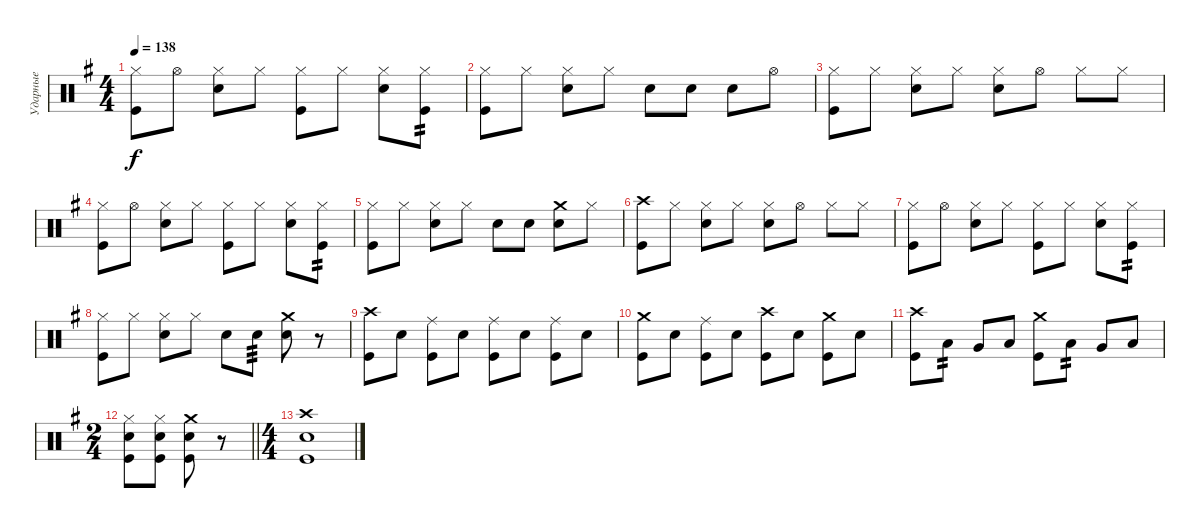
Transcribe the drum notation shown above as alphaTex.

\track ("Ударные" "Ударные") {instrument percussion}
\staff {score}
\articulation defaults
\ts (4 4)
\tempo 138
\clef neutral
\ks eminor
("Hi-Hat (closed)" "Kick (hit)").8{dy f} "Hi-Hat (open)".8 ("Hi-Hat (closed)" "Electric Snare (hit)").8 "Hi-Hat (closed)".8 ("Hi-Hat (closed)" "Kick (hit)").8 "Hi-Hat (closed)".8 ("Hi-Hat (closed)" "Electric Snare (hit)").8 ("Hi-Hat (closed)" "Kick (hit)").8{tp 2} |
("Hi-Hat (closed)" "Kick (hit)").8 "Hi-Hat (closed)".8 ("Hi-Hat (closed)" "Electric Snare (hit)").8 "Hi-Hat (closed)".8 "Electric Snare (hit)".8 "Electric Snare (hit)".8 "Electric Snare (hit)".8 "Hi-Hat (open)".8 |
("Hi-Hat (closed)" "Kick (hit)").8 "Hi-Hat (closed)".8 ("Hi-Hat (closed)" "Electric Snare (hit)").8 "Hi-Hat (closed)".8 ("Hi-Hat (closed)" "Electric Snare (hit)").8 "Hi-Hat (open)".8 "Hi-Hat (closed)".8 "Hi-Hat (closed)".8 |
("Hi-Hat (closed)" "Kick (hit)").8 "Hi-Hat (open)".8 ("Hi-Hat (closed)" "Electric Snare (hit)").8 "Hi-Hat (closed)".8 ("Hi-Hat (closed)" "Kick (hit)").8 "Hi-Hat (closed)".8 ("Hi-Hat (closed)" "Electric Snare (hit)").8 ("Hi-Hat (closed)" "Kick (hit)").8{tp 2} |
("Hi-Hat (closed)" "Kick (hit)").8 "Hi-Hat (closed)".8 ("Hi-Hat (closed)" "Electric Snare (hit)").8 "Hi-Hat (closed)".8 "Electric Snare (hit)".8 "Electric Snare (hit)".8 ("Crash medium (hit)" "Electric Snare (hit)").8 "Hi-Hat (closed)".8 |
("Crash high (hit)" "Kick (hit)").8 "Hi-Hat (closed)".8 ("Hi-Hat (closed)" "Electric Snare (hit)").8 "Hi-Hat (closed)".8 ("Hi-Hat (closed)" "Electric Snare (hit)").8 "Hi-Hat (open)".8 "Hi-Hat (closed)".8 "Hi-Hat (closed)".8 |
("Hi-Hat (closed)" "Kick (hit)").8 "Hi-Hat (open)".8 ("Hi-Hat (closed)" "Electric Snare (hit)").8 "Hi-Hat (closed)".8 ("Hi-Hat (closed)" "Kick (hit)").8 "Hi-Hat (closed)".8 ("Hi-Hat (closed)" "Electric Snare (hit)").8 ("Hi-Hat (closed)" "Kick (hit)").8{tp 2} |
("Hi-Hat (closed)" "Kick (hit)").8 "Hi-Hat (closed)".8 ("Hi-Hat (closed)" "Electric Snare (hit)").8 "Hi-Hat (closed)".8 "Electric Snare (hit)".8 "Electric Snare (hit)".8{tp 3} ("Crash medium (hit)" "Electric Snare (hit)").8 r.8 |
("Crash high (hit)" "Kick (hit)").8 "Electric Snare (hit)".8 ("Ride (middle)" "Kick (hit)").8 "Electric Snare (hit)".8 ("Ride (middle)" "Kick (hit)").8 "Electric Snare (hit)".8 ("Ride (middle)" "Kick (hit)").8 "Electric Snare (hit)".8 |
("Crash medium (hit)" "Kick (hit)").8 "Electric Snare (hit)".8 ("Ride (middle)" "Kick (hit)").8 "Electric Snare (hit)".8 ("Crash high (hit)" "Kick (hit)").8 "Electric Snare (hit)".8 ("Crash medium (hit)" "Kick (hit)").8 "Electric Snare (hit)".8 |
("Crash high (hit)" "Kick (hit)").8 "Low Tom (hit)".8{tp 2} "Very Low Tom (hit)".8 "Low Floor Tom (hit)".8 ("Crash medium (hit)" "Kick (hit)").8 "Low Tom (hit)".8{tp 2} "Very Low Tom (hit)".8 "Low Floor Tom (hit)".8 |
\ts (2 4)
\barLineRight lightlight
("Hi-Hat (closed)" "Electric Snare (hit)" "Kick (hit)").8 ("Hi-Hat (closed)" "Electric Snare (hit)" "Kick (hit)").8 ("Crash medium (hit)" "Electric Snare (hit)" "Kick (hit)").8 r.8 |
\ts (4 4)
("Crash high (hit)" "Electric Snare (hit)" "Kick (hit)").1
